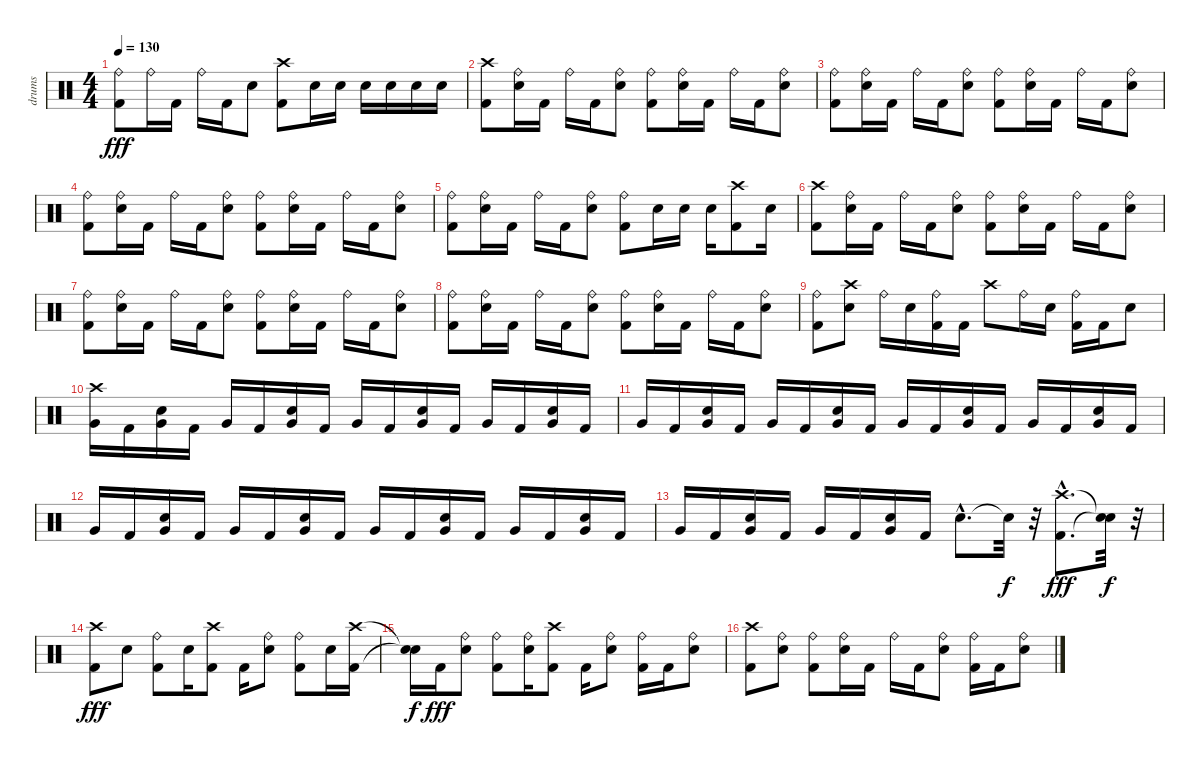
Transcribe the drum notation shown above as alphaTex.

\track ("drums" "drums") {instrument percussion}
\staff {score}
\articulation defaults
\ts (4 4)
\tempo 130
\clef neutral
\ks c
("Kick (hit) 2" "Ride (bell)").8{dy fff} "Ride (bell)".16 "Kick (hit) 2".16 "Ride (bell)".16 "Kick (hit) 2".16 "Snare (hit) 2".8 ("Crash high (hit)" "Kick (hit) 2").8 "Snare (hit) 2".16 "Snare (hit) 2".16 "Snare (hit) 2".16 "Snare (hit) 2".16 "Snare (hit) 2".16 "Snare (hit) 2".16 |
("Crash high (hit)" "Kick (hit) 2").8 ("Ride (bell)" "Snare (hit) 2").16 "Kick (hit) 2".16 "Ride (bell)".16 "Kick (hit) 2".16 ("Ride (bell)" "Snare (hit) 2").8 ("Ride (bell)" "Kick (hit) 2").8 ("Ride (bell)" "Snare (hit) 2").16 "Kick (hit) 2".16 "Ride (bell)".16 "Kick (hit) 2".16 ("Ride (bell)" "Snare (hit) 2").8 |
("Ride (bell)" "Kick (hit) 2").8 ("Ride (bell)" "Snare (hit) 2").16 "Kick (hit) 2".16 "Ride (bell)".16 "Kick (hit) 2".16 ("Ride (bell)" "Snare (hit) 2").8 ("Ride (bell)" "Kick (hit) 2").8 ("Ride (bell)" "Snare (hit) 2").16 "Kick (hit) 2".16 "Ride (bell)".16 "Kick (hit) 2".16 ("Ride (bell)" "Snare (hit) 2").8 |
("Ride (bell)" "Kick (hit) 2").8 ("Ride (bell)" "Snare (hit) 2").16 "Kick (hit) 2".16 "Ride (bell)".16 "Kick (hit) 2".16 ("Ride (bell)" "Snare (hit) 2").8 ("Ride (bell)" "Kick (hit) 2").8 ("Ride (bell)" "Snare (hit) 2").16 "Kick (hit) 2".16 "Ride (bell)".16 "Kick (hit) 2".16 ("Ride (bell)" "Snare (hit) 2").8 |
("Ride (bell)" "Kick (hit) 2").8 ("Ride (bell)" "Snare (hit) 2").16 "Kick (hit) 2".16 "Ride (bell)".16 "Kick (hit) 2".16 ("Ride (bell)" "Snare (hit) 2").8 ("Ride (bell)" "Kick (hit) 2").8 "Snare (hit) 2".16 "Snare (hit) 2".16 "Snare (hit) 2".16 ("Crash high (hit)" "Kick (hit) 2").8 "Snare (hit) 2".16 |
("Crash high (hit)" "Kick (hit) 2").8 ("Ride (bell)" "Snare (hit) 2").16 "Kick (hit) 2".16 "Ride (bell)".16 "Kick (hit) 2".16 ("Ride (bell)" "Snare (hit) 2").8 ("Ride (bell)" "Kick (hit) 2").8 ("Ride (bell)" "Snare (hit) 2").16 "Kick (hit) 2".16 "Ride (bell)".16 "Kick (hit) 2".16 ("Ride (bell)" "Snare (hit) 2").8 |
("Ride (bell)" "Kick (hit) 2").8 ("Ride (bell)" "Snare (hit) 2").16 "Kick (hit) 2".16 "Ride (bell)".16 "Kick (hit) 2".16 ("Ride (bell)" "Snare (hit) 2").8 ("Ride (bell)" "Kick (hit) 2").8 ("Ride (bell)" "Snare (hit) 2").16 "Kick (hit) 2".16 "Ride (bell)".16 "Kick (hit) 2".16 ("Ride (bell)" "Snare (hit) 2").8 |
("Ride (bell)" "Kick (hit) 2").8 ("Ride (bell)" "Snare (hit) 2").16 "Kick (hit) 2".16 "Ride (bell)".16 "Kick (hit) 2".16 ("Ride (bell)" "Snare (hit) 2").8 ("Ride (bell)" "Kick (hit) 2").8 ("Ride (bell)" "Snare (hit) 2").16 "Kick (hit) 2".16 "Ride (bell)".16 "Kick (hit) 2".16 ("Ride (bell)" "Snare (hit) 2").8 |
("Ride (bell)" "Kick (hit) 2").8 ("Crash high (hit)" "Snare (hit) 2").8 "Ride (bell)".16 "Snare (hit) 2".16 ("Ride (bell)" "Kick (hit) 2").16 "Kick (hit) 2".16 "Crash high (hit)".8 "Ride (bell)".16 "Snare (hit) 2".16 ("Ride (bell)" "Kick (hit) 2").16 "Kick (hit) 2".16 "Snare (hit) 2".8 |
("Crash high (hit)" "Very Low Tom (hit)").16 "Kick (hit) 2".16 ("Snare (hit) 2" "Very Low Tom (hit)").16 "Kick (hit) 2".16 "Very Low Tom (hit)".16 "Kick (hit) 2".16 ("Very Low Tom (hit)" "Snare (hit) 2").16 "Kick (hit) 2".16 "Very Low Tom (hit)".16 "Kick (hit) 2".16 ("Snare (hit) 2" "Very Low Tom (hit)").16 "Kick (hit) 2".16 "Very Low Tom (hit)".16 "Kick (hit) 2".16 ("Very Low Tom (hit)" "Snare (hit) 2").16 "Kick (hit) 2".16 |
"Very Low Tom (hit)".16 "Kick (hit) 2".16 ("Snare (hit) 2" "Very Low Tom (hit)").16 "Kick (hit) 2".16 "Very Low Tom (hit)".16 "Kick (hit) 2".16 ("Very Low Tom (hit)" "Snare (hit) 2").16 "Kick (hit) 2".16 "Very Low Tom (hit)".16 "Kick (hit) 2".16 ("Snare (hit) 2" "Very Low Tom (hit)").16 "Kick (hit) 2".16 "Very Low Tom (hit)".16 "Kick (hit) 2".16 ("Very Low Tom (hit)" "Snare (hit) 2").16 "Kick (hit) 2".16 |
"Very Low Tom (hit)".16 "Kick (hit) 2".16 ("Snare (hit) 2" "Very Low Tom (hit)").16 "Kick (hit) 2".16 "Very Low Tom (hit)".16 "Kick (hit) 2".16 ("Very Low Tom (hit)" "Snare (hit) 2").16 "Kick (hit) 2".16 "Very Low Tom (hit)".16 "Kick (hit) 2".16 ("Snare (hit) 2" "Very Low Tom (hit)").16 "Kick (hit) 2".16 "Very Low Tom (hit)".16 "Kick (hit) 2".16 ("Very Low Tom (hit)" "Snare (hit) 2").16 "Kick (hit) 2".16 |
"Very Low Tom (hit)".16 "Kick (hit) 2".16 ("Snare (hit) 2" "Very Low Tom (hit)").16 "Kick (hit) 2".16 "Very Low Tom (hit)".16 "Kick (hit) 2".16 ("Very Low Tom (hit)" "Snare (hit) 2").16 "Kick (hit) 2".16 "Snare (hit) 2"{hac}.8{d} "Snare (hit)"{t}.32{dy f} r.32 ("Crash high (hit)"{hac} "Kick (hit) 2"{hac}).8{d dy fff} ("Snare (hit)"{t} "Snare (hit)"{t}).32{dy f} r.32 |
("Crash high (hit)" "Kick (hit) 2").8{dy fff} "Snare (hit) 2".8 ("Ride (bell)" "Kick (hit) 2").8 "Snare (hit) 2".16 ("Crash high (hit)" "Kick (hit) 2").8 "Kick (hit) 2".16 ("Ride (bell)" "Snare (hit) 2").8 ("Ride (bell)" "Kick (hit) 2").8 "Snare (hit) 2".16 ("Crash high (hit)" "Kick (hit) 2").16 |
("Snare (hit)"{t} "Snare (hit)"{t}).16{dy f} "Kick (hit) 2".16{dy fff} ("Ride (bell)" "Snare (hit) 2").8 ("Ride (bell)" "Kick (hit) 2").8 ("Ride (bell)" "Snare (hit) 2").16 ("Crash high (hit)" "Kick (hit) 2").8 "Kick (hit) 2".16 ("Ride (bell)" "Snare (hit) 2").8 ("Ride (bell)" "Kick (hit) 2").16 "Kick (hit) 2".16 ("Ride (bell)" "Snare (hit) 2").8 |
("Crash high (hit)" "Kick (hit) 2").8 ("Ride (bell)" "Snare (hit) 2").8 ("Ride (bell)" "Kick (hit) 2").8 ("Ride (bell)" "Snare (hit) 2").16 "Kick (hit) 2".16 "Ride (bell)".16 "Kick (hit) 2".16 ("Ride (bell)" "Snare (hit) 2").8 ("Ride (bell)" "Kick (hit) 2").16 "Kick (hit) 2".16 ("Ride (bell)" "Snare (hit) 2").8
